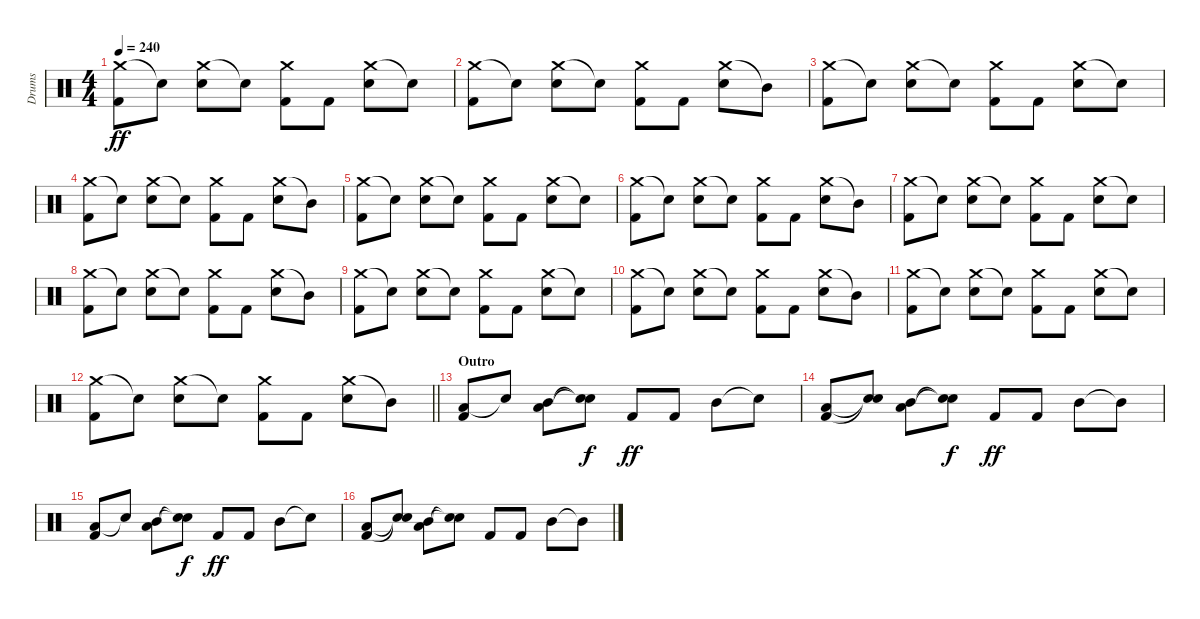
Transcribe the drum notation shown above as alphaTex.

\track ("Drums" "Drums") {instrument percussion}
\staff {score}
\articulation defaults
\ts (4 4)
\tempo 240
\clef neutral
\ks c
("Crash medium (hit)" "Kick (hit) 2").8{dy ff} "Snare (hit)"{t}.8 ("Crash medium (hit)" "Electric Snare (hit)").8 "Snare (hit)"{t}.8 ("Crash medium (hit)" "Kick (hit) 2").8 "Kick (hit) 2".8 ("Crash medium (hit)" "Electric Snare (hit)").8 "Snare (hit)"{t}.8 |
("Crash medium (hit)" "Kick (hit) 2").8 "Snare (hit)"{t}.8 ("Crash medium (hit)" "Electric Snare (hit)").8 "Snare (hit)"{t}.8 ("Crash medium (hit)" "Kick (hit) 2").8 "Kick (hit) 2".8 ("Crash medium (hit)" "Electric Snare (hit)").8 "Mid Tom (hit)"{t}.8 |
("Crash medium (hit)" "Kick (hit) 2").8 "Snare (hit)"{t}.8 ("Crash medium (hit)" "Electric Snare (hit)").8 "Snare (hit)"{t}.8 ("Crash medium (hit)" "Kick (hit) 2").8 "Kick (hit) 2".8 ("Crash medium (hit)" "Electric Snare (hit)").8 "Snare (hit)"{t}.8 |
("Crash medium (hit)" "Kick (hit) 2").8 "Snare (hit)"{t}.8 ("Crash medium (hit)" "Electric Snare (hit)").8 "Snare (hit)"{t}.8 ("Crash medium (hit)" "Kick (hit) 2").8 "Kick (hit) 2".8 ("Crash medium (hit)" "Electric Snare (hit)").8 "Mid Tom (hit)"{t}.8 |
("Crash medium (hit)" "Kick (hit) 2").8 "Snare (hit)"{t}.8 ("Crash medium (hit)" "Electric Snare (hit)").8 "Snare (hit)"{t}.8 ("Crash medium (hit)" "Kick (hit) 2").8 "Kick (hit) 2".8 ("Crash medium (hit)" "Electric Snare (hit)").8 "Snare (hit)"{t}.8 |
("Crash medium (hit)" "Kick (hit) 2").8 "Snare (hit)"{t}.8 ("Crash medium (hit)" "Electric Snare (hit)").8 "Snare (hit)"{t}.8 ("Crash medium (hit)" "Kick (hit) 2").8 "Kick (hit) 2".8 ("Crash medium (hit)" "Electric Snare (hit)").8 "Mid Tom (hit)"{t}.8 |
("Crash medium (hit)" "Kick (hit) 2").8 "Snare (hit)"{t}.8 ("Crash medium (hit)" "Electric Snare (hit)").8 "Snare (hit)"{t}.8 ("Crash medium (hit)" "Kick (hit) 2").8 "Kick (hit) 2".8 ("Crash medium (hit)" "Electric Snare (hit)").8 "Snare (hit)"{t}.8 |
("Crash medium (hit)" "Kick (hit) 2").8 "Snare (hit)"{t}.8 ("Crash medium (hit)" "Electric Snare (hit)").8 "Snare (hit)"{t}.8 ("Crash medium (hit)" "Kick (hit) 2").8 "Kick (hit) 2".8 ("Crash medium (hit)" "Electric Snare (hit)").8 "Mid Tom (hit)"{t}.8 |
("Crash medium (hit)" "Kick (hit) 2").8 "Snare (hit)"{t}.8 ("Crash medium (hit)" "Electric Snare (hit)").8 "Snare (hit)"{t}.8 ("Crash medium (hit)" "Kick (hit) 2").8 "Kick (hit) 2".8 ("Crash medium (hit)" "Electric Snare (hit)").8 "Snare (hit)"{t}.8 |
("Crash medium (hit)" "Kick (hit) 2").8 "Snare (hit)"{t}.8 ("Crash medium (hit)" "Electric Snare (hit)").8 "Snare (hit)"{t}.8 ("Crash medium (hit)" "Kick (hit) 2").8 "Kick (hit) 2".8 ("Crash medium (hit)" "Electric Snare (hit)").8 "Mid Tom (hit)"{t}.8 |
("Crash medium (hit)" "Kick (hit) 2").8 "Snare (hit)"{t}.8 ("Crash medium (hit)" "Electric Snare (hit)").8 "Snare (hit)"{t}.8 ("Crash medium (hit)" "Kick (hit) 2").8 "Kick (hit) 2".8 ("Crash medium (hit)" "Electric Snare (hit)").8 "Snare (hit)"{t}.8 |
\barLineRight lightlight
("Crash medium (hit)" "Kick (hit) 2").8 "Snare (hit)"{t}.8 ("Crash medium (hit)" "Electric Snare (hit)").8 "Snare (hit)"{t}.8 ("Crash medium (hit)" "Kick (hit) 2").8 "Kick (hit) 2".8 ("Crash medium (hit)" "Electric Snare (hit)").8 "Mid Tom (hit)"{t}.8 |
\section ("" "Outro")
("Low Floor Tom (hit)" "Kick (hit) 2").8 "Snare (hit)"{t}.8 ("Mid Tom (hit)" "Low Floor Tom (hit)").8 ("Snare (hit)"{t} "Snare (hit)"{t}).8{dy f} "Kick (hit) 2".8{dy ff} "Kick (hit) 2".8 "Mid Tom (hit)".8 "Snare (hit)"{t}.8 |
("Low Floor Tom (hit)" "Kick (hit) 2").8 ("Snare (hit)"{t} "Snare (hit)"{t}).8 ("Low Floor Tom (hit)" "Mid Tom (hit)").8 ("Snare (hit)"{t} "Snare (hit)"{t}).8{dy f} "Kick (hit) 2".8{dy ff} "Kick (hit) 2".8 "Mid Tom (hit)".8 "Mid Tom (hit)"{t}.8 |
("Low Floor Tom (hit)" "Kick (hit) 2").8 "Snare (hit)"{t}.8 ("Mid Tom (hit)" "Low Floor Tom (hit)").8 ("Snare (hit)"{t} "Snare (hit)"{t}).8{dy f} "Kick (hit) 2".8{dy ff} "Kick (hit) 2".8 "Mid Tom (hit)".8 "Snare (hit)"{t}.8 |
("Low Floor Tom (hit)" "Kick (hit) 2").8 ("Snare (hit)"{t} "Snare (hit)"{t}).8 ("Low Floor Tom (hit)" "Mid Tom (hit)").8 ("Snare (hit)"{t} "Snare (hit)"{t}).8 "Kick (hit) 2".8 "Kick (hit) 2".8 "Mid Tom (hit)".8 "Mid Tom (hit)"{t}.8
